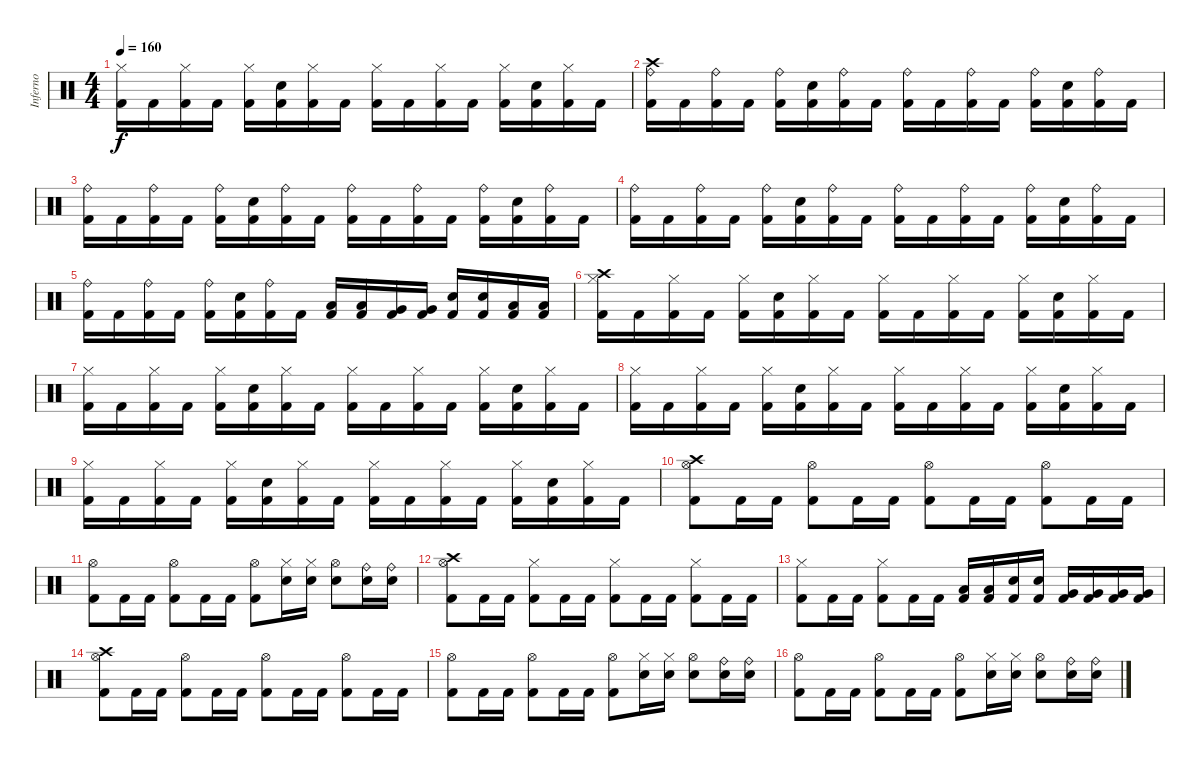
\track ("Inferno" "Inferno") {instrument percussion}
\staff {score}
\articulation defaults
\ts (4 4)
\tempo 160
\clef neutral
\ks c
("Hi-Hat (closed)" "Kick (hit) 2").16{dy f} "Kick (hit) 2".16 ("Hi-Hat (closed)" "Kick (hit) 2").16 "Kick (hit) 2".16 ("Hi-Hat (closed)" "Kick (hit) 2").16 ("Electric Snare (hit)" "Kick (hit) 2").16 ("Hi-Hat (closed)" "Kick (hit) 2").16 "Kick (hit) 2".16 ("Hi-Hat (closed)" "Kick (hit) 2").16 "Kick (hit) 2".16 ("Hi-Hat (closed)" "Kick (hit) 2").16 "Kick (hit) 2".16 ("Hi-Hat (closed)" "Kick (hit) 2").16 ("Electric Snare (hit)" "Kick (hit) 2").16 ("Hi-Hat (closed)" "Kick (hit) 2").16 "Kick (hit) 2".16 |
("Crash high (hit)" "Ride (bell)" "Kick (hit) 2").16 "Kick (hit) 2".16 ("Ride (bell)" "Kick (hit) 2").16 "Kick (hit) 2".16 ("Ride (bell)" "Kick (hit) 2").16 ("Electric Snare (hit)" "Kick (hit) 2").16 ("Ride (bell)" "Kick (hit) 2").16 "Kick (hit) 2".16 ("Ride (bell)" "Kick (hit) 2").16 "Kick (hit) 2".16 ("Ride (bell)" "Kick (hit) 2").16 "Kick (hit) 2".16 ("Ride (bell)" "Kick (hit) 2").16 ("Electric Snare (hit)" "Kick (hit) 2").16 ("Ride (bell)" "Kick (hit) 2").16 "Kick (hit) 2".16 |
("Ride (bell)" "Kick (hit) 2").16 "Kick (hit) 2".16 ("Ride (bell)" "Kick (hit) 2").16 "Kick (hit) 2".16 ("Ride (bell)" "Kick (hit) 2").16 ("Electric Snare (hit)" "Kick (hit) 2").16 ("Ride (bell)" "Kick (hit) 2").16 "Kick (hit) 2".16 ("Ride (bell)" "Kick (hit) 2").16 "Kick (hit) 2".16 ("Ride (bell)" "Kick (hit) 2").16 "Kick (hit) 2".16 ("Ride (bell)" "Kick (hit) 2").16 ("Electric Snare (hit)" "Kick (hit) 2").16 ("Ride (bell)" "Kick (hit) 2").16 "Kick (hit) 2".16 |
("Ride (bell)" "Kick (hit) 2").16 "Kick (hit) 2".16 ("Ride (bell)" "Kick (hit) 2").16 "Kick (hit) 2".16 ("Ride (bell)" "Kick (hit) 2").16 ("Electric Snare (hit)" "Kick (hit) 2").16 ("Ride (bell)" "Kick (hit) 2").16 "Kick (hit) 2".16 ("Ride (bell)" "Kick (hit) 2").16 "Kick (hit) 2".16 ("Ride (bell)" "Kick (hit) 2").16 "Kick (hit) 2".16 ("Ride (bell)" "Kick (hit) 2").16 ("Electric Snare (hit)" "Kick (hit) 2").16 ("Ride (bell)" "Kick (hit) 2").16 "Kick (hit) 2".16 |
("Ride (bell)" "Kick (hit) 2").16 "Kick (hit) 2".16 ("Ride (bell)" "Kick (hit) 2").16 "Kick (hit) 2".16 ("Ride (bell)" "Kick (hit) 2").16 ("Electric Snare (hit)" "Kick (hit) 2").16 ("Ride (bell)" "Kick (hit) 2").16 "Kick (hit) 2".16 ("Low Tom (hit)" "Kick (hit) 2").16 ("Low Tom (hit)" "Kick (hit) 2").16 ("Very Low Tom (hit)" "Kick (hit) 2").16 ("Very Low Tom (hit)" "Kick (hit) 2").16 ("Electric Snare (hit)" "Kick (hit) 2").16 ("Electric Snare (hit)" "Kick (hit) 2").16 ("Low Floor Tom (hit)" "Kick (hit) 2").16 ("Low Floor Tom (hit)" "Kick (hit) 2").16 |
("Crash high (hit)" "Hi-Hat (closed)" "Kick (hit) 2").16 "Kick (hit) 2".16 ("Hi-Hat (closed)" "Kick (hit) 2").16 "Kick (hit) 2".16 ("Hi-Hat (closed)" "Kick (hit) 2").16 ("Electric Snare (hit)" "Kick (hit) 2").16 ("Hi-Hat (closed)" "Kick (hit) 2").16 "Kick (hit) 2".16 ("Hi-Hat (closed)" "Kick (hit) 2").16 "Kick (hit) 2".16 ("Hi-Hat (closed)" "Kick (hit) 2").16 "Kick (hit) 2".16 ("Hi-Hat (closed)" "Kick (hit) 2").16 ("Electric Snare (hit)" "Kick (hit) 2").16 ("Hi-Hat (closed)" "Kick (hit) 2").16 "Kick (hit) 2".16 |
("Hi-Hat (closed)" "Kick (hit) 2").16 "Kick (hit) 2".16 ("Hi-Hat (closed)" "Kick (hit) 2").16 "Kick (hit) 2".16 ("Hi-Hat (closed)" "Kick (hit) 2").16 ("Electric Snare (hit)" "Kick (hit) 2").16 ("Hi-Hat (closed)" "Kick (hit) 2").16 "Kick (hit) 2".16 ("Hi-Hat (closed)" "Kick (hit) 2").16 "Kick (hit) 2".16 ("Hi-Hat (closed)" "Kick (hit) 2").16 "Kick (hit) 2".16 ("Hi-Hat (closed)" "Kick (hit) 2").16 ("Electric Snare (hit)" "Kick (hit) 2").16 ("Hi-Hat (closed)" "Kick (hit) 2").16 "Kick (hit) 2".16 |
("Hi-Hat (closed)" "Kick (hit) 2").16 "Kick (hit) 2".16 ("Hi-Hat (closed)" "Kick (hit) 2").16 "Kick (hit) 2".16 ("Hi-Hat (closed)" "Kick (hit) 2").16 ("Electric Snare (hit)" "Kick (hit) 2").16 ("Hi-Hat (closed)" "Kick (hit) 2").16 "Kick (hit) 2".16 ("Hi-Hat (closed)" "Kick (hit) 2").16 "Kick (hit) 2".16 ("Hi-Hat (closed)" "Kick (hit) 2").16 "Kick (hit) 2".16 ("Hi-Hat (closed)" "Kick (hit) 2").16 ("Electric Snare (hit)" "Kick (hit) 2").16 ("Hi-Hat (closed)" "Kick (hit) 2").16 "Kick (hit) 2".16 |
("Hi-Hat (closed)" "Kick (hit) 2").16 "Kick (hit) 2".16 ("Hi-Hat (closed)" "Kick (hit) 2").16 "Kick (hit) 2".16 ("Hi-Hat (closed)" "Kick (hit) 2").16 ("Electric Snare (hit)" "Kick (hit) 2").16 ("Hi-Hat (closed)" "Kick (hit) 2").16 "Kick (hit) 2".16 ("Hi-Hat (closed)" "Kick (hit) 2").16 "Kick (hit) 2".16 ("Hi-Hat (closed)" "Kick (hit) 2").16 "Kick (hit) 2".16 ("Hi-Hat (closed)" "Kick (hit) 2").16 ("Electric Snare (hit)" "Kick (hit) 2").16 ("Hi-Hat (closed)" "Kick (hit) 2").16 "Kick (hit) 2".16 |
("Crash high (hit)" "Hi-Hat (open)" "Kick (hit) 2").8 "Kick (hit) 2".16 "Kick (hit) 2".16 ("Hi-Hat (open)" "Kick (hit) 2").8 "Kick (hit) 2".16 "Kick (hit) 2".16 ("Hi-Hat (open)" "Kick (hit) 2").8 "Kick (hit) 2".16 "Kick (hit) 2".16 ("Hi-Hat (open)" "Kick (hit) 2").8 "Kick (hit) 2".16 "Kick (hit) 2".16 |
("Hi-Hat (open)" "Kick (hit) 2").8 "Kick (hit) 2".16 "Kick (hit) 2".16 ("Hi-Hat (open)" "Kick (hit) 2").8 "Kick (hit) 2".16 "Kick (hit) 2".16 ("Hi-Hat (open)" "Kick (hit) 2").8 ("Hi-Hat (closed)" "Electric Snare (hit)").16 ("Hi-Hat (closed)" "Electric Snare (hit)").16 ("Hi-Hat (open)" "Electric Snare (hit)").8 ("Ride (bell)" "Electric Snare (hit)").16 ("Ride (bell)" "Electric Snare (hit)").16 |
("Crash high (hit)" "Hi-Hat (open)" "Kick (hit) 2").8 "Kick (hit) 2".16 "Kick (hit) 2".16 ("Hi-Hat (closed)" "Kick (hit) 2").8 "Kick (hit) 2".16 "Kick (hit) 2".16 ("Hi-Hat (closed)" "Kick (hit) 2").8 "Kick (hit) 2".16 "Kick (hit) 2".16 ("Hi-Hat (closed)" "Kick (hit) 2").8 "Kick (hit) 2".16 "Kick (hit) 2".16 |
("Hi-Hat (closed)" "Kick (hit) 2").8 "Kick (hit) 2".16 "Kick (hit) 2".16 ("Hi-Hat (closed)" "Kick (hit) 2").8 "Kick (hit) 2".16 "Kick (hit) 2".16 ("Low Tom (hit)" "Kick (hit) 2").16 ("Low Tom (hit)" "Kick (hit) 2").16 ("Electric Snare (hit)" "Kick (hit) 2").16 ("Electric Snare (hit)" "Kick (hit) 2").16 ("Very Low Tom (hit)" "Kick (hit) 2").16 ("Very Low Tom (hit)" "Kick (hit) 2").16 ("Very Low Tom (hit)" "Kick (hit) 2").16 ("Very Low Tom (hit)" "Kick (hit) 2").16 |
("Crash high (hit)" "Hi-Hat (open)" "Kick (hit) 2").8 "Kick (hit) 2".16 "Kick (hit) 2".16 ("Hi-Hat (open)" "Kick (hit) 2").8 "Kick (hit) 2".16 "Kick (hit) 2".16 ("Hi-Hat (open)" "Kick (hit) 2").8 "Kick (hit) 2".16 "Kick (hit) 2".16 ("Hi-Hat (open)" "Kick (hit) 2").8 "Kick (hit) 2".16 "Kick (hit) 2".16 |
("Hi-Hat (open)" "Kick (hit) 2").8 "Kick (hit) 2".16 "Kick (hit) 2".16 ("Hi-Hat (open)" "Kick (hit) 2").8 "Kick (hit) 2".16 "Kick (hit) 2".16 ("Hi-Hat (open)" "Kick (hit) 2").8 ("Hi-Hat (closed)" "Electric Snare (hit)").16 ("Hi-Hat (closed)" "Electric Snare (hit)").16 ("Hi-Hat (open)" "Electric Snare (hit)").8 ("Ride (bell)" "Electric Snare (hit)").16 ("Ride (bell)" "Electric Snare (hit)").16 |
("Hi-Hat (open)" "Kick (hit) 2").8 "Kick (hit) 2".16 "Kick (hit) 2".16 ("Hi-Hat (open)" "Kick (hit) 2").8 "Kick (hit) 2".16 "Kick (hit) 2".16 ("Hi-Hat (open)" "Kick (hit) 2").8 ("Hi-Hat (closed)" "Electric Snare (hit)").16 ("Hi-Hat (closed)" "Electric Snare (hit)").16 ("Hi-Hat (open)" "Electric Snare (hit)").8 ("Ride (bell)" "Electric Snare (hit)").16 ("Ride (bell)" "Electric Snare (hit)").16
